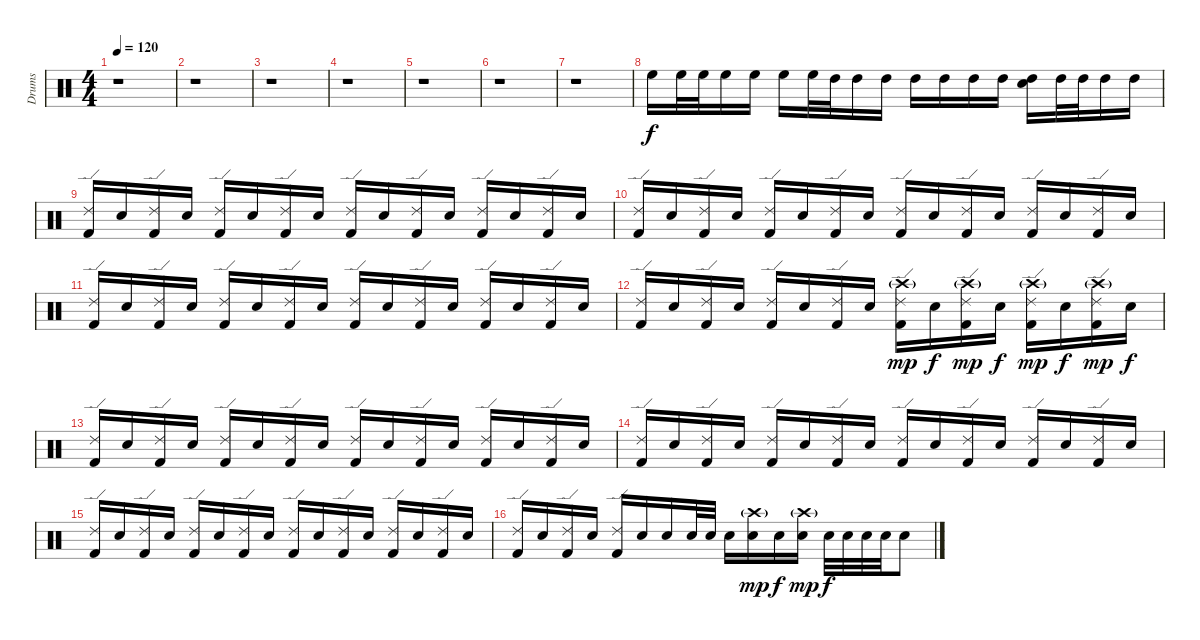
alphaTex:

\track ("Drums" "Drums") {instrument percussion}
\staff {score}
\articulation defaults
\ts (4 4)
\tempo 120
\clef neutral
\ks c
r.1{dy f} |
r.1 |
r.1 |
r.1 |
r.1 |
r.1 |
r.1 |
"High Floor Tom (hit)".16 "High Floor Tom (hit)".32 "High Floor Tom (hit)".32 "High Floor Tom (hit)".16 "High Floor Tom (hit)".16 "High Floor Tom (hit)".16 "High Floor Tom (hit)".32 "High Tom (hit)".32 "High Tom (hit)".16 "High Tom (hit)".16 "High Tom (hit)".16 "High Tom (hit)".16 "High Tom (hit)".16 "High Tom (hit)".16 ("High Tom (hit)" "Electric Snare (hit)").16 "High Tom (hit)".32 "High Tom (hit)".32 "High Tom (hit)".16 "High Tom (hit)".16 |
("Ride (edge) 2" "Kick (hit) 2").16 "Electric Snare (hit)".16 ("Ride (edge) 2" "Kick (hit) 2").16 "Electric Snare (hit)".16 ("Ride (edge) 2" "Kick (hit) 2").16 "Electric Snare (hit)".16 ("Ride (edge) 2" "Kick (hit) 2").16 "Electric Snare (hit)".16 ("Ride (edge) 2" "Kick (hit) 2").16 "Electric Snare (hit)".16 ("Ride (edge) 2" "Kick (hit) 2").16 "Electric Snare (hit)".16 ("Ride (edge) 2" "Kick (hit) 2").16 "Electric Snare (hit)".16 ("Ride (edge) 2" "Kick (hit) 2").16 "Electric Snare (hit)".16 |
("Ride (edge) 2" "Kick (hit) 2").16 "Electric Snare (hit)".16 ("Ride (edge) 2" "Kick (hit) 2").16 "Electric Snare (hit)".16 ("Ride (edge) 2" "Kick (hit) 2").16 "Electric Snare (hit)".16 ("Ride (edge) 2" "Kick (hit) 2").16 "Electric Snare (hit)".16 ("Ride (edge) 2" "Kick (hit) 2").16 "Electric Snare (hit)".16 ("Ride (edge) 2" "Kick (hit) 2").16 "Electric Snare (hit)".16 ("Ride (edge) 2" "Kick (hit) 2").16 "Electric Snare (hit)".16 ("Ride (edge) 2" "Kick (hit) 2").16 "Electric Snare (hit)".16 |
("Ride (edge) 2" "Kick (hit) 2").16 "Electric Snare (hit)".16 ("Ride (edge) 2" "Kick (hit) 2").16 "Electric Snare (hit)".16 ("Ride (edge) 2" "Kick (hit) 2").16 "Electric Snare (hit)".16 ("Ride (edge) 2" "Kick (hit) 2").16 "Electric Snare (hit)".16 ("Ride (edge) 2" "Kick (hit) 2").16 "Electric Snare (hit)".16 ("Ride (edge) 2" "Kick (hit) 2").16 "Electric Snare (hit)".16 ("Ride (edge) 2" "Kick (hit) 2").16 "Electric Snare (hit)".16 ("Ride (edge) 2" "Kick (hit) 2").16 "Electric Snare (hit)".16 |
("Ride (edge) 2" "Kick (hit) 2").16 "Electric Snare (hit)".16 ("Ride (edge) 2" "Kick (hit) 2").16 "Electric Snare (hit)".16 ("Ride (edge) 2" "Kick (hit) 2").16 "Electric Snare (hit)".16 ("Ride (edge) 2" "Kick (hit) 2").16 "Electric Snare (hit)".16 ("Ride (edge) 2" "Kick (hit) 2" "Crash high (hit)"{g}).16{dy mp} "Electric Snare (hit)".16{dy f} ("Ride (edge) 2" "Kick (hit) 2" "Crash high (hit)"{g}).16{dy mp} "Electric Snare (hit)".16{dy f} ("Ride (edge) 2" "Kick (hit) 2" "Crash high (hit)"{g}).16{dy mp} "Electric Snare (hit)".16{dy f} ("Ride (edge) 2" "Kick (hit) 2" "Crash high (hit)"{g}).16{dy mp} "Electric Snare (hit)".16{dy f} |
("Ride (edge) 2" "Kick (hit) 2").16 "Electric Snare (hit)".16 ("Ride (edge) 2" "Kick (hit) 2").16 "Electric Snare (hit)".16 ("Ride (edge) 2" "Kick (hit) 2").16 "Electric Snare (hit)".16 ("Ride (edge) 2" "Kick (hit) 2").16 "Electric Snare (hit)".16 ("Ride (edge) 2" "Kick (hit) 2").16 "Electric Snare (hit)".16 ("Ride (edge) 2" "Kick (hit) 2").16 "Electric Snare (hit)".16 ("Ride (edge) 2" "Kick (hit) 2").16 "Electric Snare (hit)".16 ("Ride (edge) 2" "Kick (hit) 2").16 "Electric Snare (hit)".16 |
("Ride (edge) 2" "Kick (hit) 2").16 "Electric Snare (hit)".16 ("Ride (edge) 2" "Kick (hit) 2").16 "Electric Snare (hit)".16 ("Ride (edge) 2" "Kick (hit) 2").16 "Electric Snare (hit)".16 ("Ride (edge) 2" "Kick (hit) 2").16 "Electric Snare (hit)".16 ("Ride (edge) 2" "Kick (hit) 2").16 "Electric Snare (hit)".16 ("Ride (edge) 2" "Kick (hit) 2").16 "Electric Snare (hit)".16 ("Ride (edge) 2" "Kick (hit) 2").16 "Electric Snare (hit)".16 ("Ride (edge) 2" "Kick (hit) 2").16 "Electric Snare (hit)".16 |
("Ride (edge) 2" "Kick (hit) 2").16 "Electric Snare (hit)".16 ("Ride (edge) 2" "Kick (hit) 2").16 "Electric Snare (hit)".16 ("Ride (edge) 2" "Kick (hit) 2").16 "Electric Snare (hit)".16 ("Ride (edge) 2" "Kick (hit) 2").16 "Electric Snare (hit)".16 ("Ride (edge) 2" "Kick (hit) 2").16 "Electric Snare (hit)".16 ("Ride (edge) 2" "Kick (hit) 2").16 "Electric Snare (hit)".16 ("Ride (edge) 2" "Kick (hit) 2").16 "Electric Snare (hit)".16 ("Ride (edge) 2" "Kick (hit) 2").16 "Electric Snare (hit)".16 |
("Ride (edge) 2" "Kick (hit) 2").16 "Electric Snare (hit)".16 ("Ride (edge) 2" "Kick (hit) 2").16 "Electric Snare (hit)".16 ("Ride (edge) 2" "Kick (hit) 2").16 "Electric Snare (hit)".16 "Electric Snare (hit)".16 "Electric Snare (hit)".32 "Electric Snare (hit)".32 "Electric Snare (hit)".16 ("Crash high (hit)"{g} "Electric Snare (hit)").16{dy mp} "Electric Snare (hit)".16{dy f} ("Crash high (hit)"{g} "Electric Snare (hit)").16{dy mp} "Electric Snare (hit)".32{dy f} "Electric Snare (hit)".32 "Electric Snare (hit)".32 "Electric Snare (hit)".32 "Electric Snare (hit)".8
